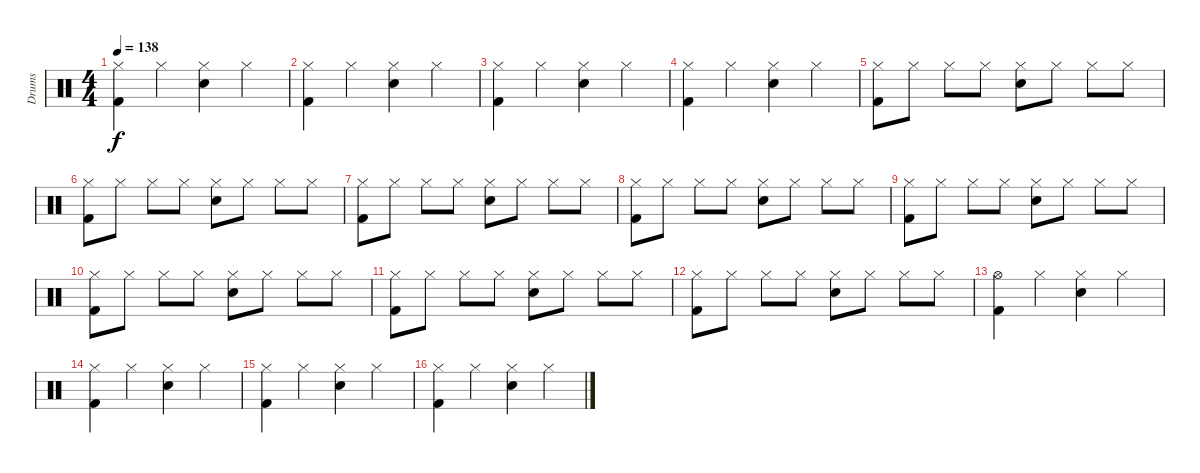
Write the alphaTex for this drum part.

\track ("Drums" "Drums") {instrument percussion}
\staff {score}
\articulation defaults
\ts (4 4)
\tempo 138
\clef neutral
\ks c
("Hi-Hat (closed)" "Kick (hit) 2").4{dy f} "Hi-Hat (closed)".4 ("Hi-Hat (closed)" "Snare (hit) 2").4 "Hi-Hat (closed)".4 |
("Hi-Hat (closed)" "Kick (hit) 2").4 "Hi-Hat (closed)".4 ("Hi-Hat (closed)" "Snare (hit) 2").4 "Hi-Hat (closed)".4 |
("Hi-Hat (closed)" "Kick (hit) 2").4 "Hi-Hat (closed)".4 ("Hi-Hat (closed)" "Snare (hit) 2").4 "Hi-Hat (closed)".4 |
("Hi-Hat (closed)" "Kick (hit) 2").4 "Hi-Hat (closed)".4 ("Hi-Hat (closed)" "Snare (hit) 2").4 "Hi-Hat (closed)".4 |
("Hi-Hat (closed)" "Kick (hit) 2").8 "Hi-Hat (closed)".8 "Hi-Hat (closed)".8 "Hi-Hat (closed)".8 ("Hi-Hat (closed)" "Snare (hit) 2").8 "Hi-Hat (closed)".8 "Hi-Hat (closed)".8 "Hi-Hat (closed)".8 |
("Hi-Hat (closed)" "Kick (hit) 2").8 "Hi-Hat (closed)".8 "Hi-Hat (closed)".8 "Hi-Hat (closed)".8 ("Hi-Hat (closed)" "Snare (hit) 2").8 "Hi-Hat (closed)".8 "Hi-Hat (closed)".8 "Hi-Hat (closed)".8 |
("Hi-Hat (closed)" "Kick (hit) 2").8 "Hi-Hat (closed)".8 "Hi-Hat (closed)".8 "Hi-Hat (closed)".8 ("Hi-Hat (closed)" "Snare (hit) 2").8 "Hi-Hat (closed)".8 "Hi-Hat (closed)".8 "Hi-Hat (closed)".8 |
("Hi-Hat (closed)" "Kick (hit) 2").8 "Hi-Hat (closed)".8 "Hi-Hat (closed)".8 "Hi-Hat (closed)".8 ("Hi-Hat (closed)" "Snare (hit) 2").8 "Hi-Hat (closed)".8 "Hi-Hat (closed)".8 "Hi-Hat (closed)".8 |
("Hi-Hat (closed)" "Kick (hit) 2").8 "Hi-Hat (closed)".8 "Hi-Hat (closed)".8 "Hi-Hat (closed)".8 ("Hi-Hat (closed)" "Snare (hit) 2").8 "Hi-Hat (closed)".8 "Hi-Hat (closed)".8 "Hi-Hat (closed)".8 |
("Hi-Hat (closed)" "Kick (hit) 2").8 "Hi-Hat (closed)".8 "Hi-Hat (closed)".8 "Hi-Hat (closed)".8 ("Hi-Hat (closed)" "Snare (hit) 2").8 "Hi-Hat (closed)".8 "Hi-Hat (closed)".8 "Hi-Hat (closed)".8 |
("Hi-Hat (closed)" "Kick (hit) 2").8 "Hi-Hat (closed)".8 "Hi-Hat (closed)".8 "Hi-Hat (closed)".8 ("Hi-Hat (closed)" "Snare (hit) 2").8 "Hi-Hat (closed)".8 "Hi-Hat (closed)".8 "Hi-Hat (closed)".8 |
("Hi-Hat (closed)" "Kick (hit) 2").8 "Hi-Hat (closed)".8 "Hi-Hat (closed)".8 "Hi-Hat (closed)".8 ("Hi-Hat (closed)" "Snare (hit) 2").8 "Hi-Hat (closed)".8 "Hi-Hat (closed)".8 "Hi-Hat (closed)".8 |
("Hi-Hat (open)" "Kick (hit) 2").4 "Hi-Hat (closed)".4 ("Hi-Hat (closed)" "Snare (hit) 2").4 "Hi-Hat (closed)".4 |
("Hi-Hat (closed)" "Kick (hit) 2").4 "Hi-Hat (closed)".4 ("Hi-Hat (closed)" "Snare (hit) 2").4 "Hi-Hat (closed)".4 |
("Hi-Hat (closed)" "Kick (hit) 2").4 "Hi-Hat (closed)".4 ("Hi-Hat (closed)" "Snare (hit) 2").4 "Hi-Hat (closed)".4 |
("Hi-Hat (closed)" "Kick (hit) 2").4 "Hi-Hat (closed)".4 ("Hi-Hat (closed)" "Snare (hit) 2").4 "Hi-Hat (closed)".4
